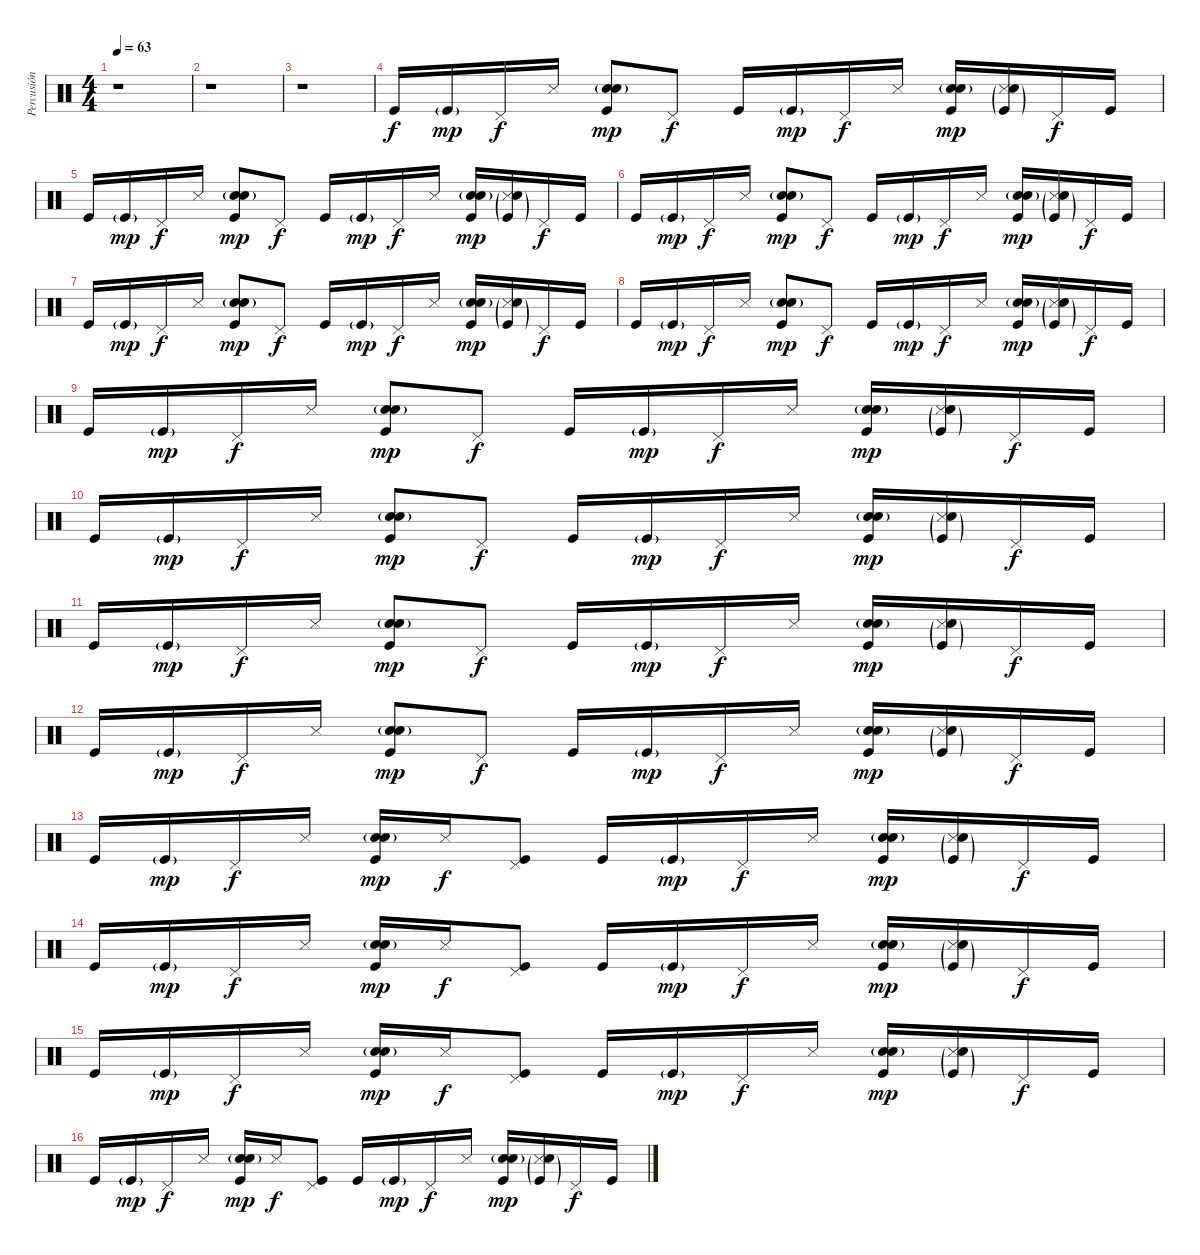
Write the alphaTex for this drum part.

\track ("Percusión" "Percusión") {instrument percussion}
\staff {score}
\articulation defaults
\ts (4 4)
\tempo 63
\clef neutral
\ks c
r.1{dy f} |
r.1 |
r.1 |
"Kick (hit)".16 "Kick (hit)"{g}.16{dy mp} "Pedal Hi-Hat (hit)".16{dy f} "Snare (side stick) 3".16 ("Kick (hit)" "Snare (hit) 2"{g} "Hand Clap (hit)").8{dy mp} "Pedal Hi-Hat (hit)".8{dy f} "Kick (hit)".16 "Kick (hit)"{g}.16{dy mp} "Pedal Hi-Hat (hit)".16{dy f} "Snare (side stick) 3".16 ("Kick (hit)" "Snare (hit) 2"{g} "Hand Clap (hit)").16{dy mp} ("Kick (hit)"{g} "Snare (side stick) 3" "Hand Clap (hit)"{g}).16 "Pedal Hi-Hat (hit)".16{dy f} "Kick (hit)".16 |
"Kick (hit)".16 "Kick (hit)"{g}.16{dy mp} "Pedal Hi-Hat (hit)".16{dy f} "Snare (side stick) 3".16 ("Kick (hit)" "Snare (hit) 2"{g} "Hand Clap (hit)").8{dy mp} "Pedal Hi-Hat (hit)".8{dy f} "Kick (hit)".16 "Kick (hit)"{g}.16{dy mp} "Pedal Hi-Hat (hit)".16{dy f} "Snare (side stick) 3".16 ("Kick (hit)" "Snare (hit) 2"{g} "Hand Clap (hit)").16{dy mp} ("Kick (hit)"{g} "Snare (side stick) 3" "Hand Clap (hit)"{g}).16 "Pedal Hi-Hat (hit)".16{dy f} "Kick (hit)".16 |
"Kick (hit)".16 "Kick (hit)"{g}.16{dy mp} "Pedal Hi-Hat (hit)".16{dy f} "Snare (side stick) 3".16 ("Kick (hit)" "Snare (hit) 2"{g} "Hand Clap (hit)").8{dy mp} "Pedal Hi-Hat (hit)".8{dy f} "Kick (hit)".16 "Kick (hit)"{g}.16{dy mp} "Pedal Hi-Hat (hit)".16{dy f} "Snare (side stick) 3".16 ("Kick (hit)" "Snare (hit) 2"{g} "Hand Clap (hit)").16{dy mp} ("Kick (hit)"{g} "Snare (side stick) 3" "Hand Clap (hit)"{g}).16 "Pedal Hi-Hat (hit)".16{dy f} "Kick (hit)".16 |
"Kick (hit)".16 "Kick (hit)"{g}.16{dy mp} "Pedal Hi-Hat (hit)".16{dy f} "Snare (side stick) 3".16 ("Kick (hit)" "Snare (hit) 2"{g} "Hand Clap (hit)").8{dy mp} "Pedal Hi-Hat (hit)".8{dy f} "Kick (hit)".16 "Kick (hit)"{g}.16{dy mp} "Pedal Hi-Hat (hit)".16{dy f} "Snare (side stick) 3".16 ("Kick (hit)" "Snare (hit) 2"{g} "Hand Clap (hit)").16{dy mp} ("Kick (hit)"{g} "Snare (side stick) 3" "Hand Clap (hit)"{g}).16 "Pedal Hi-Hat (hit)".16{dy f} "Kick (hit)".16 |
"Kick (hit)".16 "Kick (hit)"{g}.16{dy mp} "Pedal Hi-Hat (hit)".16{dy f} "Snare (side stick) 3".16 ("Kick (hit)" "Snare (hit) 2"{g} "Hand Clap (hit)").8{dy mp} "Pedal Hi-Hat (hit)".8{dy f} "Kick (hit)".16 "Kick (hit)"{g}.16{dy mp} "Pedal Hi-Hat (hit)".16{dy f} "Snare (side stick) 3".16 ("Kick (hit)" "Snare (hit) 2"{g} "Hand Clap (hit)").16{dy mp} ("Kick (hit)"{g} "Snare (side stick) 3" "Hand Clap (hit)"{g}).16 "Pedal Hi-Hat (hit)".16{dy f} "Kick (hit)".16 |
"Kick (hit)".16 "Kick (hit)"{g}.16{dy mp} "Pedal Hi-Hat (hit)".16{dy f} "Snare (side stick) 3".16 ("Kick (hit)" "Snare (hit) 2"{g} "Hand Clap (hit)").8{dy mp} "Pedal Hi-Hat (hit)".8{dy f} "Kick (hit)".16 "Kick (hit)"{g}.16{dy mp} "Pedal Hi-Hat (hit)".16{dy f} "Snare (side stick) 3".16 ("Kick (hit)" "Snare (hit) 2"{g} "Hand Clap (hit)").16{dy mp} ("Kick (hit)"{g} "Snare (side stick) 3" "Hand Clap (hit)"{g}).16 "Pedal Hi-Hat (hit)".16{dy f} "Kick (hit)".16 |
"Kick (hit)".16 "Kick (hit)"{g}.16{dy mp} "Pedal Hi-Hat (hit)".16{dy f} "Snare (side stick) 3".16 ("Kick (hit)" "Snare (hit) 2"{g} "Hand Clap (hit)").8{dy mp} "Pedal Hi-Hat (hit)".8{dy f} "Kick (hit)".16 "Kick (hit)"{g}.16{dy mp} "Pedal Hi-Hat (hit)".16{dy f} "Snare (side stick) 3".16 ("Kick (hit)" "Snare (hit) 2"{g} "Hand Clap (hit)").16{dy mp} ("Kick (hit)"{g} "Snare (side stick) 3" "Hand Clap (hit)"{g}).16 "Pedal Hi-Hat (hit)".16{dy f} "Kick (hit)".16 |
"Kick (hit)".16 "Kick (hit)"{g}.16{dy mp} "Pedal Hi-Hat (hit)".16{dy f} "Snare (side stick) 3".16 ("Kick (hit)" "Snare (hit) 2"{g} "Hand Clap (hit)").8{dy mp} "Pedal Hi-Hat (hit)".8{dy f} "Kick (hit)".16 "Kick (hit)"{g}.16{dy mp} "Pedal Hi-Hat (hit)".16{dy f} "Snare (side stick) 3".16 ("Kick (hit)" "Snare (hit) 2"{g} "Hand Clap (hit)").16{dy mp} ("Kick (hit)"{g} "Snare (side stick) 3" "Hand Clap (hit)"{g}).16 "Pedal Hi-Hat (hit)".16{dy f} "Kick (hit)".16 |
"Kick (hit)".16 "Kick (hit)"{g}.16{dy mp} "Pedal Hi-Hat (hit)".16{dy f} "Snare (side stick) 3".16 ("Kick (hit)" "Snare (hit) 2"{g} "Hand Clap (hit)").8{dy mp} "Pedal Hi-Hat (hit)".8{dy f} "Kick (hit)".16 "Kick (hit)"{g}.16{dy mp} "Pedal Hi-Hat (hit)".16{dy f} "Snare (side stick) 3".16 ("Kick (hit)" "Snare (hit) 2"{g} "Hand Clap (hit)").16{dy mp} ("Kick (hit)"{g} "Snare (side stick) 3" "Hand Clap (hit)"{g}).16 "Pedal Hi-Hat (hit)".16{dy f} "Kick (hit)".16 |
"Kick (hit)".16 "Kick (hit)"{g}.16{dy mp} "Pedal Hi-Hat (hit)".16{dy f} "Snare (side stick) 3".16 ("Kick (hit)" "Snare (hit) 2"{g} "Hand Clap (hit)").16{dy mp} "Snare (side stick) 3".16{dy f} ("Kick (hit)" "Pedal Hi-Hat (hit)").8 "Kick (hit)".16 "Kick (hit)"{g}.16{dy mp} "Pedal Hi-Hat (hit)".16{dy f} "Snare (side stick) 3".16 ("Kick (hit)" "Snare (hit) 2"{g} "Hand Clap (hit)").16{dy mp} ("Kick (hit)"{g} "Snare (side stick) 3" "Hand Clap (hit)"{g}).16 "Pedal Hi-Hat (hit)".16{dy f} "Kick (hit)".16 |
"Kick (hit)".16 "Kick (hit)"{g}.16{dy mp} "Pedal Hi-Hat (hit)".16{dy f} "Snare (side stick) 3".16 ("Kick (hit)" "Snare (hit) 2"{g} "Hand Clap (hit)").16{dy mp} "Snare (side stick) 3".16{dy f} ("Kick (hit)" "Pedal Hi-Hat (hit)").8 "Kick (hit)".16 "Kick (hit)"{g}.16{dy mp} "Pedal Hi-Hat (hit)".16{dy f} "Snare (side stick) 3".16 ("Kick (hit)" "Snare (hit) 2"{g} "Hand Clap (hit)").16{dy mp} ("Kick (hit)"{g} "Snare (side stick) 3" "Hand Clap (hit)"{g}).16 "Pedal Hi-Hat (hit)".16{dy f} "Kick (hit)".16 |
"Kick (hit)".16 "Kick (hit)"{g}.16{dy mp} "Pedal Hi-Hat (hit)".16{dy f} "Snare (side stick) 3".16 ("Kick (hit)" "Snare (hit) 2"{g} "Hand Clap (hit)").16{dy mp} "Snare (side stick) 3".16{dy f} ("Kick (hit)" "Pedal Hi-Hat (hit)").8 "Kick (hit)".16 "Kick (hit)"{g}.16{dy mp} "Pedal Hi-Hat (hit)".16{dy f} "Snare (side stick) 3".16 ("Kick (hit)" "Snare (hit) 2"{g} "Hand Clap (hit)").16{dy mp} ("Kick (hit)"{g} "Snare (side stick) 3" "Hand Clap (hit)"{g}).16 "Pedal Hi-Hat (hit)".16{dy f} "Kick (hit)".16 |
"Kick (hit)".16 "Kick (hit)"{g}.16{dy mp} "Pedal Hi-Hat (hit)".16{dy f} "Snare (side stick) 3".16 ("Kick (hit)" "Snare (hit) 2"{g} "Hand Clap (hit)").16{dy mp} "Snare (side stick) 3".16{dy f} ("Kick (hit)" "Pedal Hi-Hat (hit)").8 "Kick (hit)".16 "Kick (hit)"{g}.16{dy mp} "Pedal Hi-Hat (hit)".16{dy f} "Snare (side stick) 3".16 ("Kick (hit)" "Snare (hit) 2"{g} "Hand Clap (hit)").16{dy mp} ("Kick (hit)"{g} "Snare (side stick) 3" "Hand Clap (hit)"{g}).16 "Pedal Hi-Hat (hit)".16{dy f} "Kick (hit)".16
